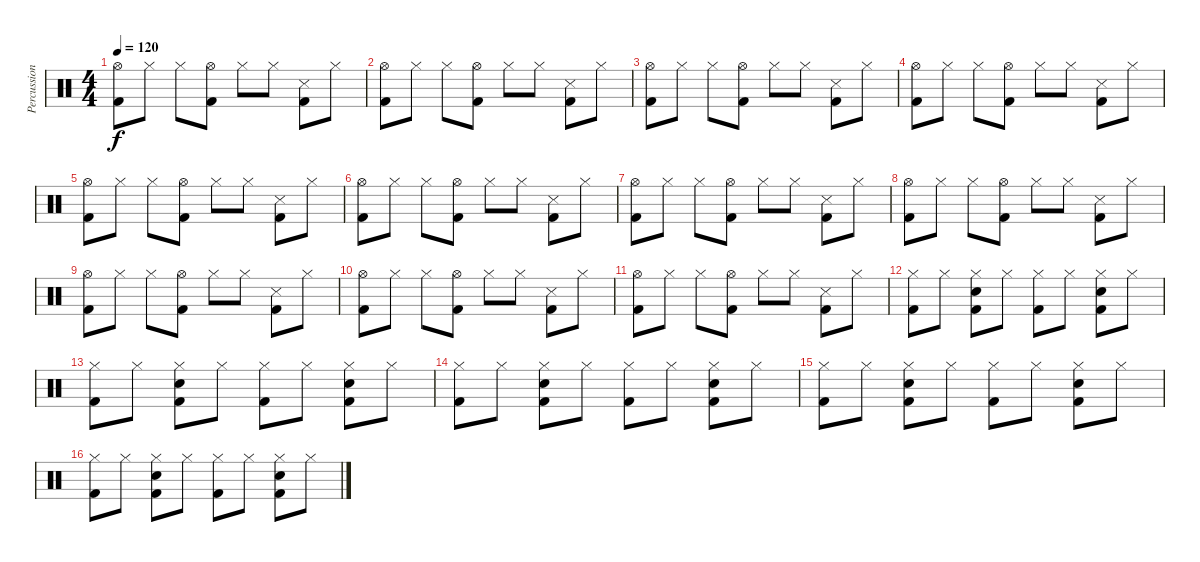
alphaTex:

\track ("Percussion" "Percussion") {instrument percussion}
\staff {score}
\articulation defaults
\ts (4 4)
\tempo 120
\clef neutral
\ks c
("Hi-Hat (open)" "Kick (hit) 2").8{dy f} "Hi-Hat (closed)".8 "Hi-Hat (closed)".8 ("Hi-Hat (open)" "Kick (hit) 2").8 "Hi-Hat (closed)".8 "Hi-Hat (closed)".8 ("Snare (side stick) 3" "Kick (hit) 2").8 "Hi-Hat (closed)".8 |
("Hi-Hat (open)" "Kick (hit) 2").8 "Hi-Hat (closed)".8 "Hi-Hat (closed)".8 ("Hi-Hat (open)" "Kick (hit) 2").8 "Hi-Hat (closed)".8 "Hi-Hat (closed)".8 ("Snare (side stick) 3" "Kick (hit) 2").8 "Hi-Hat (closed)".8 |
("Hi-Hat (open)" "Kick (hit) 2").8 "Hi-Hat (closed)".8 "Hi-Hat (closed)".8 ("Hi-Hat (open)" "Kick (hit) 2").8 "Hi-Hat (closed)".8 "Hi-Hat (closed)".8 ("Snare (side stick) 3" "Kick (hit) 2").8 "Hi-Hat (closed)".8 |
("Hi-Hat (open)" "Kick (hit) 2").8 "Hi-Hat (closed)".8 "Hi-Hat (closed)".8 ("Hi-Hat (open)" "Kick (hit) 2").8 "Hi-Hat (closed)".8 "Hi-Hat (closed)".8 ("Snare (side stick) 3" "Kick (hit) 2").8 "Hi-Hat (closed)".8 |
("Hi-Hat (open)" "Kick (hit) 2").8 "Hi-Hat (closed)".8 "Hi-Hat (closed)".8 ("Hi-Hat (open)" "Kick (hit) 2").8 "Hi-Hat (closed)".8 "Hi-Hat (closed)".8 ("Snare (side stick) 3" "Kick (hit) 2").8 "Hi-Hat (closed)".8 |
("Hi-Hat (open)" "Kick (hit) 2").8 "Hi-Hat (closed)".8 "Hi-Hat (closed)".8 ("Hi-Hat (open)" "Kick (hit) 2").8 "Hi-Hat (closed)".8 "Hi-Hat (closed)".8 ("Snare (side stick) 3" "Kick (hit) 2").8 "Hi-Hat (closed)".8 |
("Hi-Hat (open)" "Kick (hit) 2").8 "Hi-Hat (closed)".8 "Hi-Hat (closed)".8 ("Hi-Hat (open)" "Kick (hit) 2").8 "Hi-Hat (closed)".8 "Hi-Hat (closed)".8 ("Snare (side stick) 3" "Kick (hit) 2").8 "Hi-Hat (closed)".8 |
("Hi-Hat (open)" "Kick (hit) 2").8 "Hi-Hat (closed)".8 "Hi-Hat (closed)".8 ("Hi-Hat (open)" "Kick (hit) 2").8 "Hi-Hat (closed)".8 "Hi-Hat (closed)".8 ("Snare (side stick) 3" "Kick (hit) 2").8 "Hi-Hat (closed)".8 |
("Hi-Hat (open)" "Kick (hit) 2").8 "Hi-Hat (closed)".8 "Hi-Hat (closed)".8 ("Hi-Hat (open)" "Kick (hit) 2").8 "Hi-Hat (closed)".8 "Hi-Hat (closed)".8 ("Snare (side stick) 3" "Kick (hit) 2").8 "Hi-Hat (closed)".8 |
("Hi-Hat (open)" "Kick (hit) 2").8 "Hi-Hat (closed)".8 "Hi-Hat (closed)".8 ("Hi-Hat (open)" "Kick (hit) 2").8 "Hi-Hat (closed)".8 "Hi-Hat (closed)".8 ("Snare (side stick) 3" "Kick (hit) 2").8 "Hi-Hat (closed)".8 |
("Hi-Hat (open)" "Kick (hit) 2").8 "Hi-Hat (closed)".8 "Hi-Hat (closed)".8 ("Hi-Hat (open)" "Kick (hit) 2").8 "Hi-Hat (closed)".8 "Hi-Hat (closed)".8 ("Snare (side stick) 3" "Kick (hit) 2").8 "Hi-Hat (closed)".8 |
("Hi-Hat (closed)" "Kick (hit) 2").8 "Hi-Hat (closed)".8 ("Hi-Hat (closed)" "Snare (hit) 2" "Kick (hit) 2").8 "Hi-Hat (closed)".8 ("Hi-Hat (closed)" "Kick (hit) 2").8 "Hi-Hat (closed)".8 ("Hi-Hat (closed)" "Snare (hit) 2" "Kick (hit) 2").8 "Hi-Hat (closed)".8 |
("Hi-Hat (closed)" "Kick (hit) 2").8 "Hi-Hat (closed)".8 ("Hi-Hat (closed)" "Snare (hit) 2" "Kick (hit) 2").8 "Hi-Hat (closed)".8 ("Hi-Hat (closed)" "Kick (hit) 2").8 "Hi-Hat (closed)".8 ("Hi-Hat (closed)" "Snare (hit) 2" "Kick (hit) 2").8 "Hi-Hat (closed)".8 |
("Hi-Hat (closed)" "Kick (hit) 2").8 "Hi-Hat (closed)".8 ("Hi-Hat (closed)" "Snare (hit) 2" "Kick (hit) 2").8 "Hi-Hat (closed)".8 ("Hi-Hat (closed)" "Kick (hit) 2").8 "Hi-Hat (closed)".8 ("Hi-Hat (closed)" "Snare (hit) 2" "Kick (hit) 2").8 "Hi-Hat (closed)".8 |
("Hi-Hat (closed)" "Kick (hit) 2").8 "Hi-Hat (closed)".8 ("Hi-Hat (closed)" "Snare (hit) 2" "Kick (hit) 2").8 "Hi-Hat (closed)".8 ("Hi-Hat (closed)" "Kick (hit) 2").8 "Hi-Hat (closed)".8 ("Hi-Hat (closed)" "Snare (hit) 2" "Kick (hit) 2").8 "Hi-Hat (closed)".8 |
("Hi-Hat (closed)" "Kick (hit) 2").8 "Hi-Hat (closed)".8 ("Hi-Hat (closed)" "Snare (hit) 2" "Kick (hit) 2").8 "Hi-Hat (closed)".8 ("Hi-Hat (closed)" "Kick (hit) 2").8 "Hi-Hat (closed)".8 ("Hi-Hat (closed)" "Snare (hit) 2" "Kick (hit) 2").8 "Hi-Hat (closed)".8
